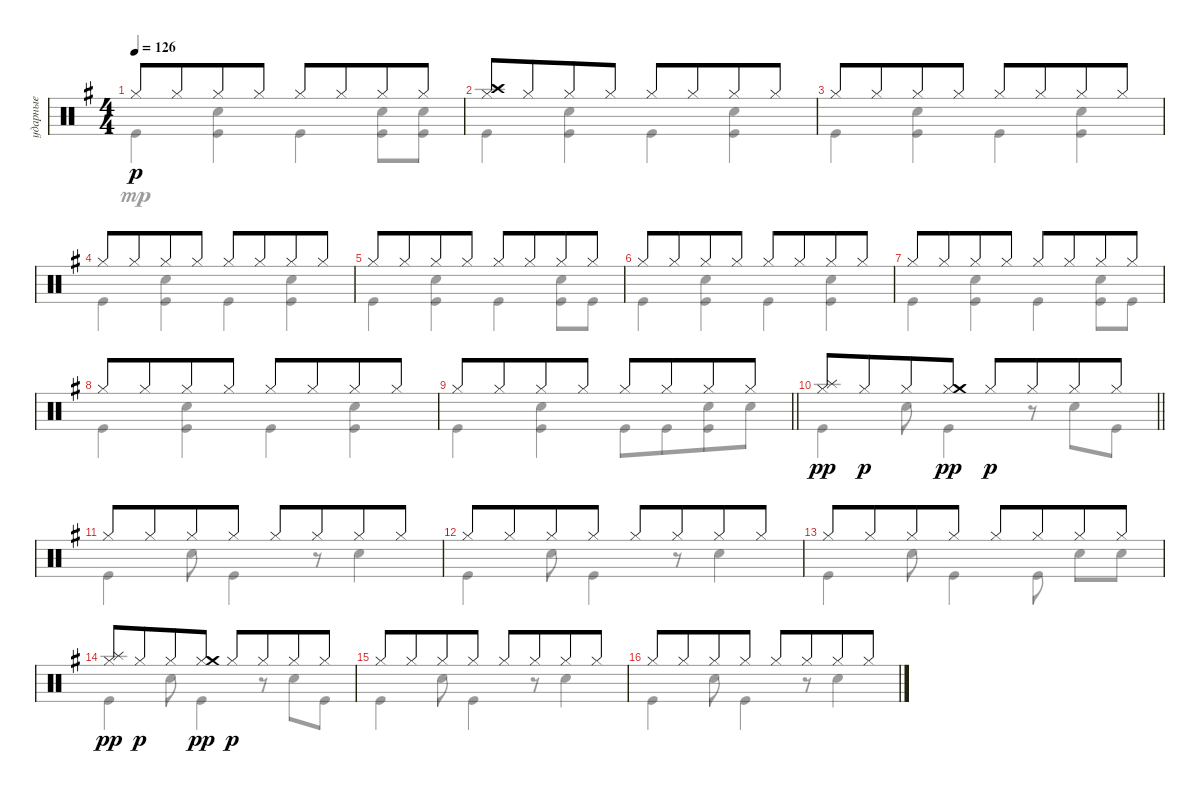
\track ("ударные" "ударные") {instrument percussion}
\staff {score}
\articulation defaults
\voice
\ts (4 4)
\tempo 126
\clef neutral
\ks eminor "Hi-Hat (closed)".8{dy p} "Hi-Hat (closed)".8{beam merge} "Hi-Hat (closed)".8 "Hi-Hat (closed)".8 "Hi-Hat (closed)".8 "Hi-Hat (closed)".8{beam merge} "Hi-Hat (closed)".8 "Hi-Hat (closed)".8
|
("Hi-Hat (closed)" "Crash high (hit)").8 "Hi-Hat (closed)".8{beam merge} "Hi-Hat (closed)".8 "Hi-Hat (closed)".8 "Hi-Hat (closed)".8 "Hi-Hat (closed)".8{beam merge} "Hi-Hat (closed)".8 "Hi-Hat (closed)".8 |
"Hi-Hat (closed)".8 "Hi-Hat (closed)".8{beam merge} "Hi-Hat (closed)".8 "Hi-Hat (closed)".8 "Hi-Hat (closed)".8 "Hi-Hat (closed)".8{beam merge} "Hi-Hat (closed)".8 "Hi-Hat (closed)".8 |
"Hi-Hat (closed)".8 "Hi-Hat (closed)".8{beam merge} "Hi-Hat (closed)".8 "Hi-Hat (closed)".8 "Hi-Hat (closed)".8 "Hi-Hat (closed)".8{beam merge} "Hi-Hat (closed)".8 "Hi-Hat (closed)".8 |
"Hi-Hat (closed)".8 "Hi-Hat (closed)".8{beam merge} "Hi-Hat (closed)".8 "Hi-Hat (closed)".8 "Hi-Hat (closed)".8 "Hi-Hat (closed)".8{beam merge} "Hi-Hat (closed)".8 "Hi-Hat (closed)".8 |
"Hi-Hat (closed)".8 "Hi-Hat (closed)".8{beam merge} "Hi-Hat (closed)".8 "Hi-Hat (closed)".8 "Hi-Hat (closed)".8 "Hi-Hat (closed)".8{beam merge} "Hi-Hat (closed)".8 "Hi-Hat (closed)".8 |
"Hi-Hat (closed)".8 "Hi-Hat (closed)".8{beam merge} "Hi-Hat (closed)".8 "Hi-Hat (closed)".8 "Hi-Hat (closed)".8 "Hi-Hat (closed)".8{beam merge} "Hi-Hat (closed)".8 "Hi-Hat (closed)".8 |
"Hi-Hat (closed)".8 "Hi-Hat (closed)".8{beam merge} "Hi-Hat (closed)".8 "Hi-Hat (closed)".8 "Hi-Hat (closed)".8 "Hi-Hat (closed)".8{beam merge} "Hi-Hat (closed)".8 "Hi-Hat (closed)".8 |
\barLineRight lightlight "Hi-Hat (closed)".8 "Hi-Hat (closed)".8{beam merge} "Hi-Hat (closed)".8 "Hi-Hat (closed)".8 "Hi-Hat (closed)".8 "Hi-Hat (closed)".8{beam merge} "Hi-Hat (closed)".8 "Hi-Hat (closed)".8
|
\section ("" "")
\barLineRight lightlight
("Hi-Hat (closed)" "Splash (hit)").8{dy pp} "Hi-Hat (closed)".8{dy p beam merge} "Hi-Hat (closed)".8 ("Hi-Hat (closed)" "Crash medium (hit)").8{dy pp} "Hi-Hat (closed)".8{dy p} "Hi-Hat (closed)".8{beam merge} "Hi-Hat (closed)".8 "Hi-Hat (closed)".8 |
\section ("" "")
"Hi-Hat (closed)".8 "Hi-Hat (closed)".8{beam merge} "Hi-Hat (closed)".8 "Hi-Hat (closed)".8 "Hi-Hat (closed)".8 "Hi-Hat (closed)".8{beam merge} "Hi-Hat (closed)".8 "Hi-Hat (closed)".8 |
"Hi-Hat (closed)".8 "Hi-Hat (closed)".8{beam merge} "Hi-Hat (closed)".8 "Hi-Hat (closed)".8 "Hi-Hat (closed)".8 "Hi-Hat (closed)".8{beam merge} "Hi-Hat (closed)".8 "Hi-Hat (closed)".8 |
"Hi-Hat (closed)".8 "Hi-Hat (closed)".8{beam merge} "Hi-Hat (closed)".8 "Hi-Hat (closed)".8 "Hi-Hat (closed)".8 "Hi-Hat (closed)".8{beam merge} "Hi-Hat (closed)".8 "Hi-Hat (closed)".8 |
("Hi-Hat (closed)" "Splash (hit)").8{dy pp} "Hi-Hat (closed)".8{dy p beam merge} "Hi-Hat (closed)".8 ("Hi-Hat (closed)" "Crash medium (hit)").8{dy pp} "Hi-Hat (closed)".8{dy p} "Hi-Hat (closed)".8{beam merge} "Hi-Hat (closed)".8 "Hi-Hat (closed)".8 |
"Hi-Hat (closed)".8 "Hi-Hat (closed)".8{beam merge} "Hi-Hat (closed)".8 "Hi-Hat (closed)".8 "Hi-Hat (closed)".8 "Hi-Hat (closed)".8{beam merge} "Hi-Hat (closed)".8 "Hi-Hat (closed)".8 |
"Hi-Hat (closed)".8 "Hi-Hat (closed)".8{beam merge} "Hi-Hat (closed)".8 "Hi-Hat (closed)".8 "Hi-Hat (closed)".8 "Hi-Hat (closed)".8{beam merge} "Hi-Hat (closed)".8 "Hi-Hat (closed)".8
\voice
\clef neutral
\ottava regular
\simile none
\ks eminor "Kick (hit)".4{dy mp}
("Snare (hit) 2" "Kick (hit)").4 "Kick (hit)".4 ("Snare (hit) 2" "Kick (hit)").8 ("Snare (hit) 2" "Kick (hit)").8 |
"Kick (hit)".4 ("Snare (hit) 2" "Kick (hit)").4 "Kick (hit)".4 ("Snare (hit) 2" "Kick (hit)").4 |
"Kick (hit)".4 ("Snare (hit) 2" "Kick (hit)").4 "Kick (hit)".4 ("Snare (hit) 2" "Kick (hit)").4 |
"Kick (hit)".4 ("Snare (hit) 2" "Kick (hit)").4 "Kick (hit)".4 ("Snare (hit) 2" "Kick (hit)").4 |
"Kick (hit)".4 ("Snare (hit) 2" "Kick (hit)").4 "Kick (hit)".4 ("Snare (hit) 2" "Kick (hit)").8 "Kick (hit)".8 |
"Kick (hit)".4 ("Snare (hit) 2" "Kick (hit)").4 "Kick (hit)".4 ("Snare (hit) 2" "Kick (hit)").4 |
"Kick (hit)".4 ("Snare (hit) 2" "Kick (hit)").4 "Kick (hit)".4 ("Snare (hit) 2" "Kick (hit)").8 "Kick (hit)".8 |
"Kick (hit)".4 ("Snare (hit) 2" "Kick (hit)").4 "Kick (hit)".4 ("Snare (hit) 2" "Kick (hit)").4 |
\barLineRight lightlight "Kick (hit)".4
("Snare (hit) 2" "Kick (hit)").4 "Kick (hit)".8 "Kick (hit)".8{beam merge} ("Snare (hit) 2" "Kick (hit)").8 "Snare (hit) 2".8 |
\barLineRight lightlight "Kick (hit)".4 "Snare (hit) 2".8 "Kick (hit)".4
r.8 "Snare (hit) 2".8 "Kick (hit)".8 |
"Kick (hit)".4 "Snare (hit) 2".8 "Kick (hit)".4 r.8 "Snare (hit) 2".4 |
"Kick (hit)".4 "Snare (hit) 2".8 "Kick (hit)".4 r.8 "Snare (hit) 2".4 |
"Kick (hit)".4 "Snare (hit) 2".8 "Kick (hit)".4 "Kick (hit)".8 "Snare (hit) 2".8 "Snare (hit) 2".8 |
"Kick (hit)".4 "Snare (hit) 2".8 "Kick (hit)".4 r.8 "Snare (hit) 2".8 "Kick (hit)".8 |
"Kick (hit)".4 "Snare (hit) 2".8 "Kick (hit)".4 r.8 "Snare (hit) 2".4 |
"Kick (hit)".4 "Snare (hit) 2".8 "Kick (hit)".4 r.8 "Snare (hit) 2".4
